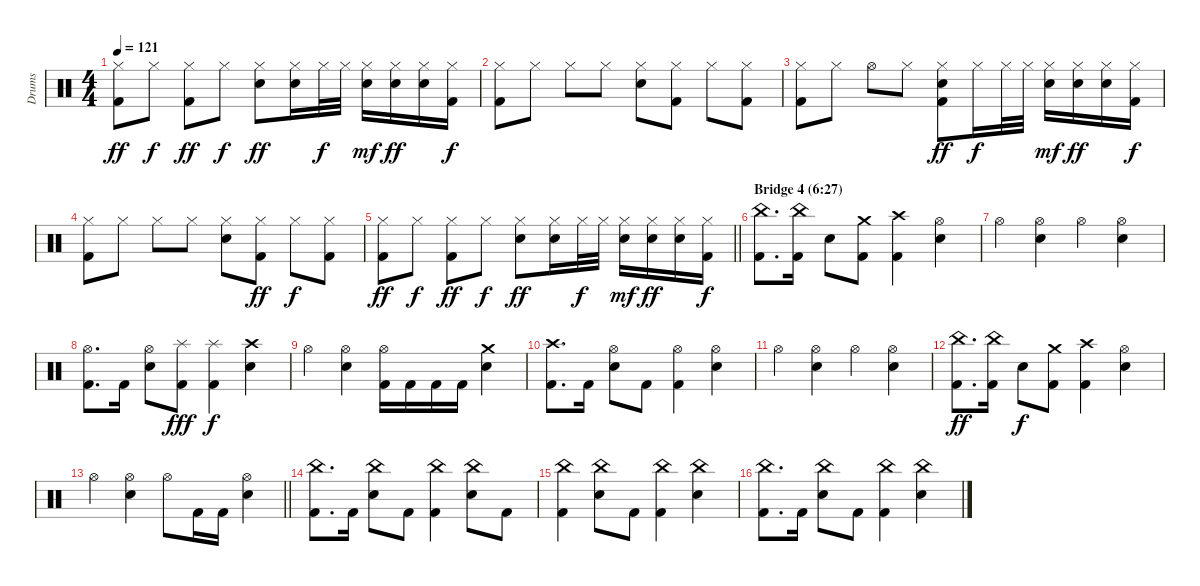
\track ("Drums" "Drums") {instrument percussion}
\staff {score}
\articulation defaults
\ts (4 4)
\tempo 121
\clef neutral
\ks c
("Hi-Hat (closed)" "Kick (hit) 2").8{dy ff} "Hi-Hat (closed)".8{dy f} ("Hi-Hat (closed)" "Kick (hit) 2").8{dy ff} "Hi-Hat (closed)".8{dy f} ("Hi-Hat (closed)" "Snare (hit) 2").8{dy ff} ("Hi-Hat (closed)" "Snare (hit) 2").16 "Hi-Hat (closed)".32{dy f} "Hi-Hat (closed)".32 ("Hi-Hat (closed)" "Snare (hit) 2").16{dy mf} ("Hi-Hat (closed)" "Snare (hit) 2").16{dy ff} ("Hi-Hat (closed)" "Snare (hit) 2").16 ("Hi-Hat (closed)" "Kick (hit) 2").16{dy f} |
("Hi-Hat (closed)" "Kick (hit) 2").8 "Hi-Hat (closed)".8 "Hi-Hat (closed)".8 "Hi-Hat (closed)".8 ("Hi-Hat (closed)" "Snare (hit) 2").8 ("Hi-Hat (closed)" "Kick (hit) 2").8 "Hi-Hat (closed)".8 ("Hi-Hat (closed)" "Kick (hit) 2").8 |
("Hi-Hat (closed)" "Kick (hit) 2").8 "Hi-Hat (closed)".8 "Hi-Hat (open)".8 "Hi-Hat (closed)".8 ("Hi-Hat (closed)" "Snare (hit) 2" "Kick (hit) 2").8{dy ff} "Hi-Hat (closed)".16{dy f} "Hi-Hat (closed)".32 "Hi-Hat (closed)".32 ("Hi-Hat (closed)" "Snare (hit) 2").16{dy mf} ("Hi-Hat (closed)" "Snare (hit) 2").16{dy ff} ("Hi-Hat (closed)" "Snare (hit) 2").16 ("Hi-Hat (closed)" "Kick (hit) 2").16{dy f} |
("Hi-Hat (closed)" "Kick (hit) 2").8 "Hi-Hat (closed)".8 "Hi-Hat (closed)".8 "Hi-Hat (closed)".8 ("Hi-Hat (closed)" "Snare (hit) 2").8 ("Hi-Hat (closed)" "Kick (hit) 2").8{dy ff} "Hi-Hat (closed)".8{dy f} ("Hi-Hat (closed)" "Kick (hit) 2").8 |
\barLineRight lightlight
("Hi-Hat (closed)" "Kick (hit) 2").8{dy ff} "Hi-Hat (closed)".8{dy f} ("Hi-Hat (closed)" "Kick (hit) 2").8{dy ff} "Hi-Hat (closed)".8{dy f} ("Hi-Hat (closed)" "Snare (hit) 2").8{dy ff} ("Hi-Hat (closed)" "Snare (hit) 2").16 "Hi-Hat (closed)".32{dy f} "Hi-Hat (closed)".32 ("Hi-Hat (closed)" "Snare (hit) 2").16{dy mf} ("Hi-Hat (closed)" "Snare (hit) 2").16{dy ff} ("Hi-Hat (closed)" "Snare (hit) 2").16 ("Hi-Hat (closed)" "Kick (hit) 2").16{dy f} |
\section ("" "Bridge 4 (6:27)")
("China (hit)" "Kick (hit) 2").8{d volume 16} ("China (hit)" "Kick (hit) 2").16 "Electric Snare (hit)".8 ("Crash medium (hit)" "Kick (hit) 2").8 ("Crash high (hit)" "Kick (hit) 2").4 ("Hi-Hat (open)" "Electric Snare (hit)").4 |
"Hi-Hat (open)".4 ("Hi-Hat (open)" "Electric Snare (hit)").4 "Hi-Hat (open)".4 ("Hi-Hat (open)" "Electric Snare (hit)").4 |
("Hi-Hat (open)" "Kick (hit) 2").8{d} "Kick (hit) 2".16 ("Hi-Hat (open)" "Electric Snare (hit)").8 ("Splash (hit)" "Kick (hit) 2").8{dy fff} ("Splash (hit)" "Kick (hit) 2").4{dy f} ("Crash high (hit)" "Electric Snare (hit)").4 |
"Hi-Hat (open)".4 ("Hi-Hat (open)" "Electric Snare (hit)").4 ("Hi-Hat (open)" "Kick (hit) 2").16 "Kick (hit) 2".16 "Kick (hit) 2".16 "Kick (hit) 2".16 ("Crash medium (hit)" "Electric Snare (hit)").4 |
("Crash high (hit)" "Kick (hit) 2").8{d} "Kick (hit) 2".16 ("Hi-Hat (open)" "Electric Snare (hit)").8 "Kick (hit) 2".8 ("Hi-Hat (open)" "Kick (hit) 2").4 ("Hi-Hat (open)" "Electric Snare (hit)").4 |
"Hi-Hat (open)".4 ("Hi-Hat (open)" "Electric Snare (hit)").4 "Hi-Hat (open)".4 ("Hi-Hat (open)" "Electric Snare (hit)").4 |
("China (hit)" "Kick (hit) 2").8{d dy ff} ("China (hit)" "Kick (hit) 2").16 "Electric Snare (hit)".8{dy f} ("Crash medium (hit)" "Kick (hit) 2").8 ("Crash high (hit)" "Kick (hit) 2").4 ("Hi-Hat (open)" "Electric Snare (hit)").4 |
\barLineRight lightlight "Hi-Hat (open)".4
("Hi-Hat (open)" "Electric Snare (hit)").4 "Hi-Hat (open)".8 "Kick (hit) 2".16 "Kick (hit) 2".16 ("Hi-Hat (open)" "Electric Snare (hit)").4 |
("China (hit)" "Kick (hit) 2").8{d} "Kick (hit) 2".16 ("China (hit)" "Electric Snare (hit)").8 "Kick (hit) 2".8 ("China (hit)" "Kick (hit) 2").4 ("China (hit)" "Electric Snare (hit)").8 "Kick (hit) 2".8 |
("China (hit)" "Kick (hit) 2").4 ("China (hit)" "Electric Snare (hit)").8 "Kick (hit) 2".8 ("China (hit)" "Kick (hit) 2").4 ("China (hit)" "Electric Snare (hit)").4 |
("China (hit)" "Kick (hit) 2").8{d} "Kick (hit) 2".16 ("China (hit)" "Electric Snare (hit)").8 "Kick (hit) 2".8 ("China (hit)" "Kick (hit) 2").4 ("China (hit)" "Electric Snare (hit)").4
